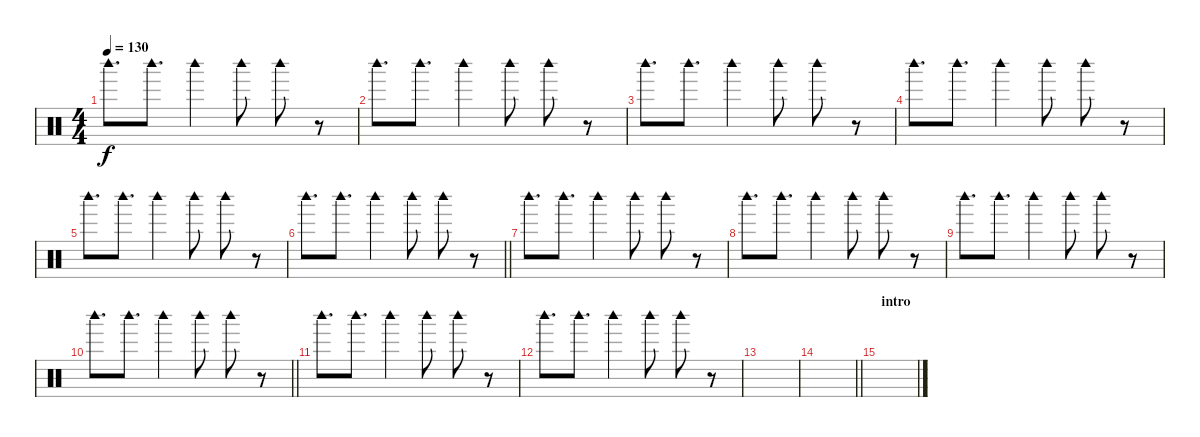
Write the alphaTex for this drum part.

\track "" {instrument percussion}
\staff {score}
\articulation defaults
\ts (4 4)
\tempo 130
\clef neutral
\ks c "Woodblock high (hit)".8{d dy f} "Woodblock high (hit)".8{d} "Woodblock high (hit)".4 "Woodblock high (hit)".8 "Woodblock high (hit)".8
r.8 |
"Woodblock high (hit)".8{d} "Woodblock high (hit)".8{d} "Woodblock high (hit)".4 "Woodblock high (hit)".8 "Woodblock high (hit)".8 r.8 |
"Woodblock high (hit)".8{d} "Woodblock high (hit)".8{d} "Woodblock high (hit)".4 "Woodblock high (hit)".8 "Woodblock high (hit)".8 r.8 |
"Woodblock high (hit)".8{d} "Woodblock high (hit)".8{d} "Woodblock high (hit)".4 "Woodblock high (hit)".8 "Woodblock high (hit)".8 r.8 |
"Woodblock high (hit)".8{d} "Woodblock high (hit)".8{d} "Woodblock high (hit)".4 "Woodblock high (hit)".8 "Woodblock high (hit)".8 r.8 |
\barLineRight lightlight "Woodblock high (hit)".8{d} "Woodblock high (hit)".8{d} "Woodblock high (hit)".4 "Woodblock high (hit)".8 "Woodblock high (hit)".8
r.8 |
\section ("" "")
"Woodblock high (hit)".8{d} "Woodblock high (hit)".8{d} "Woodblock high (hit)".4 "Woodblock high (hit)".8 "Woodblock high (hit)".8 r.8 |
"Woodblock high (hit)".8{d} "Woodblock high (hit)".8{d} "Woodblock high (hit)".4 "Woodblock high (hit)".8 "Woodblock high (hit)".8 r.8 |
"Woodblock high (hit)".8{d} "Woodblock high (hit)".8{d} "Woodblock high (hit)".4 "Woodblock high (hit)".8 "Woodblock high (hit)".8 r.8 |
\barLineRight lightlight "Woodblock high (hit)".8{d} "Woodblock high (hit)".8{d} "Woodblock high (hit)".4 "Woodblock high (hit)".8 "Woodblock high (hit)".8
r.8 |
\section ("" "")
"Woodblock high (hit)".8{d} "Woodblock high (hit)".8{d} "Woodblock high (hit)".4 "Woodblock high (hit)".8 "Woodblock high (hit)".8 r.8 |
"Woodblock high (hit)".8{d} "Woodblock high (hit)".8{d} "Woodblock high (hit)".4 "Woodblock high (hit)".8 "Woodblock high (hit)".8 r.8 |
|
\barLineRight lightlight
|
\section ("" "intro")
